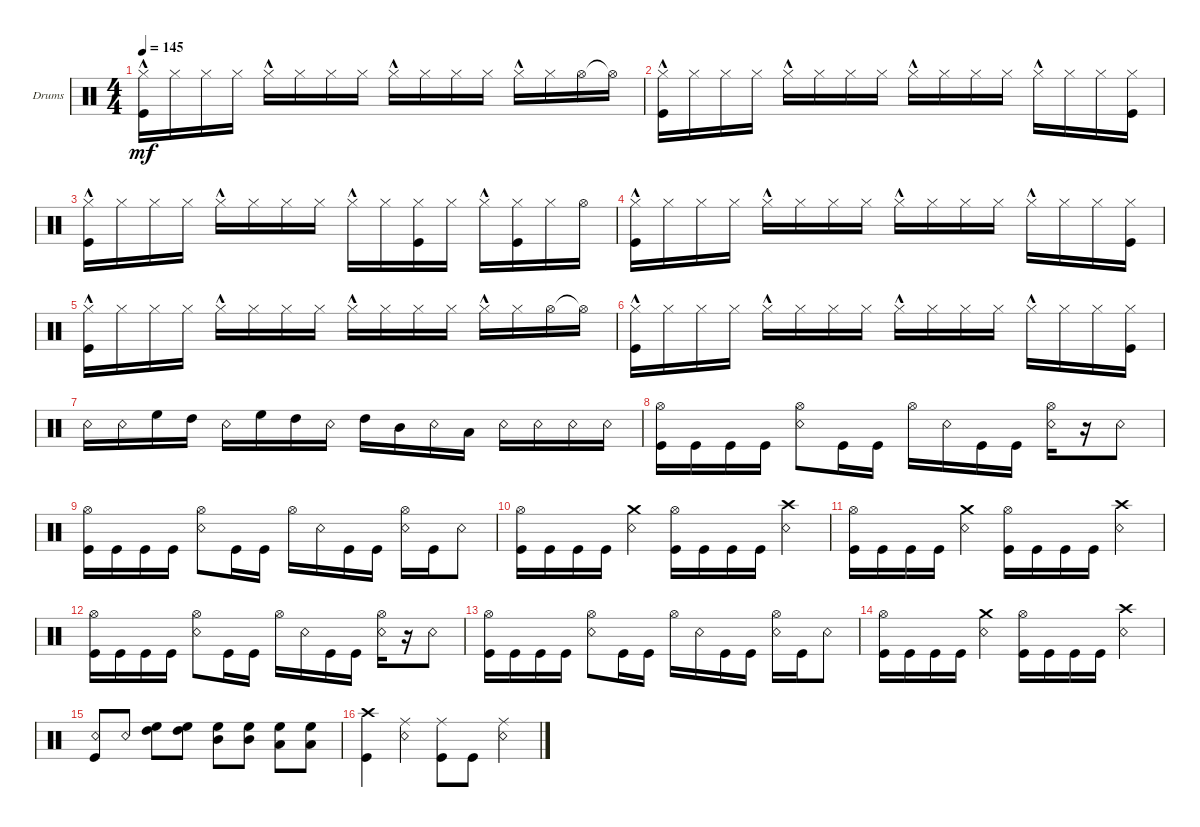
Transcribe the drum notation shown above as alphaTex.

\defaultSystemsLayout 4
\bracketExtendMode groupsimilarinstruments
\firstSystemTrackNameOrientation horizontal
\otherSystemsTrackNameOrientation horizontal
\track ("Drumkit" "Drums") {instrument percussion}
\staff {score}
\articulation defaults
\ts (4 4)
\tempo 145
\clef neutral
\ks c
("Hi-Hat (closed)"{hac} "Kick (hit)").16{dy mf} "Hi-Hat (closed)".16 "Hi-Hat (closed)".16 "Hi-Hat (closed)".16 "Hi-Hat (closed)"{hac}.16 "Hi-Hat (closed)".16 "Hi-Hat (closed)".16 "Hi-Hat (closed)".16 "Hi-Hat (closed)"{hac}.16 "Hi-Hat (closed)".16 "Hi-Hat (closed)".16 "Hi-Hat (closed)".16 "Hi-Hat (closed)"{hac}.16 "Hi-Hat (closed)".16 "Hi-Hat (open)".16 "Hi-Hat (open)"{t}.16 |
("Hi-Hat (closed)"{hac} "Kick (hit)").16 "Hi-Hat (closed)".16 "Hi-Hat (closed)".16 "Hi-Hat (closed)".16 "Hi-Hat (closed)"{hac}.16 "Hi-Hat (closed)".16 "Hi-Hat (closed)".16 "Hi-Hat (closed)".16 "Hi-Hat (closed)"{hac}.16 "Hi-Hat (closed)".16 "Hi-Hat (closed)".16 "Hi-Hat (closed)".16 "Hi-Hat (closed)"{hac}.16 "Hi-Hat (closed)".16 "Hi-Hat (closed)".16 ("Hi-Hat (closed)" "Kick (hit)").16 |
("Hi-Hat (closed)"{hac} "Kick (hit)").16 "Hi-Hat (closed)".16 "Hi-Hat (closed)".16 "Hi-Hat (closed)".16 "Hi-Hat (closed)"{hac}.16 "Hi-Hat (closed)".16 "Hi-Hat (closed)".16 "Hi-Hat (closed)".16 "Hi-Hat (closed)"{hac}.16 "Hi-Hat (closed)".16 ("Hi-Hat (closed)" "Kick (hit)").16 "Hi-Hat (closed)".16 "Hi-Hat (closed)"{hac}.16 ("Hi-Hat (closed)" "Kick (hit)").16 "Hi-Hat (closed)".16 "Hi-Hat (open)".16 |
("Hi-Hat (closed)"{hac} "Kick (hit)").16 "Hi-Hat (closed)".16 "Hi-Hat (closed)".16 "Hi-Hat (closed)".16 "Hi-Hat (closed)"{hac}.16 "Hi-Hat (closed)".16 "Hi-Hat (closed)".16 "Hi-Hat (closed)".16 "Hi-Hat (closed)"{hac}.16 "Hi-Hat (closed)".16 "Hi-Hat (closed)".16 "Hi-Hat (closed)".16 "Hi-Hat (closed)"{hac}.16 "Hi-Hat (closed)".16 "Hi-Hat (closed)".16 ("Hi-Hat (closed)" "Kick (hit)").16 |
("Hi-Hat (closed)"{hac} "Kick (hit)").16 "Hi-Hat (closed)".16 "Hi-Hat (closed)".16 "Hi-Hat (closed)".16 "Hi-Hat (closed)"{hac}.16 "Hi-Hat (closed)".16 "Hi-Hat (closed)".16 "Hi-Hat (closed)".16 "Hi-Hat (closed)"{hac}.16 "Hi-Hat (closed)".16 "Hi-Hat (closed)".16 "Hi-Hat (closed)".16 "Hi-Hat (closed)"{hac}.16 "Hi-Hat (closed)".16 "Hi-Hat (open)".16 "Hi-Hat (open)"{t}.16 |
("Hi-Hat (closed)"{hac} "Kick (hit)").16 "Hi-Hat (closed)".16 "Hi-Hat (closed)".16 "Hi-Hat (closed)".16 "Hi-Hat (closed)"{hac}.16 "Hi-Hat (closed)".16 "Hi-Hat (closed)".16 "Hi-Hat (closed)".16 "Hi-Hat (closed)"{hac}.16 "Hi-Hat (closed)".16 "Hi-Hat (closed)".16 "Hi-Hat (closed)".16 "Hi-Hat (closed)"{hac}.16 "Hi-Hat (closed)".16 "Hi-Hat (closed)".16 ("Hi-Hat (closed)" "Kick (hit)").16 |
"Snare (rim shot)".16 "Snare (rim shot)".16 "High Floor Tom (hit)".16 "High Tom (hit)".16 "Snare (rim shot)".16 "High Floor Tom (hit)".16 "High Tom (hit)".16 "Snare (rim shot)".16 "High Tom (hit)".16 "Mid Tom (hit)".16 "Snare (rim shot)".16 "Low Tom (hit)".16 "Snare (rim shot)".16 "Snare (rim shot)".16 "Snare (rim shot)".16 "Snare (rim shot)".16 |
("Kick (hit)" "Hi-Hat (open)").16 "Kick (hit)".16 "Kick (hit)".16 "Kick (hit)".16 ("Hi-Hat (open)" "Snare (rim shot)").8 "Kick (hit)".16 "Kick (hit)".16 "Hi-Hat (open)".16 "Snare (rim shot)".16 "Kick (hit)".16 "Kick (hit)".16 ("Snare (rim shot)" "Hi-Hat (open)").16 r.16 "Snare (rim shot)".8 |
("Kick (hit)" "Hi-Hat (open)").16 "Kick (hit)".16 "Kick (hit)".16 "Kick (hit)".16 ("Hi-Hat (open)" "Snare (rim shot)").8 "Kick (hit)".16 "Kick (hit)".16 "Hi-Hat (open)".16 "Snare (rim shot)".16 "Kick (hit)".16 "Kick (hit)".16 ("Snare (rim shot)" "Hi-Hat (open)").16 "Kick (hit)".16 "Snare (rim shot)".8 |
("Kick (hit)" "Hi-Hat (open)").16 "Kick (hit)".16 "Kick (hit)".16 "Kick (hit)".16 ("Snare (rim shot)" "Crash medium (hit)").4 ("Kick (hit)" "Hi-Hat (open)").16 "Kick (hit)".16 "Kick (hit)".16 "Kick (hit)".16 ("Snare (rim shot)" "Crash high (hit)").4 |
("Kick (hit)" "Hi-Hat (open)").16 "Kick (hit)".16 "Kick (hit)".16 "Kick (hit)".16 ("Snare (rim shot)" "Crash medium (hit)").4 ("Kick (hit)" "Hi-Hat (open)").16 "Kick (hit)".16 "Kick (hit)".16 "Kick (hit)".16 ("Snare (rim shot)" "Crash high (hit)").4 |
("Kick (hit)" "Hi-Hat (open)").16 "Kick (hit)".16 "Kick (hit)".16 "Kick (hit)".16 ("Hi-Hat (open)" "Snare (rim shot)").8 "Kick (hit)".16 "Kick (hit)".16 "Hi-Hat (open)".16 "Snare (rim shot)".16 "Kick (hit)".16 "Kick (hit)".16 ("Snare (rim shot)" "Hi-Hat (open)").16 r.16 "Snare (rim shot)".8 |
("Kick (hit)" "Hi-Hat (open)").16 "Kick (hit)".16 "Kick (hit)".16 "Kick (hit)".16 ("Hi-Hat (open)" "Snare (rim shot)").8 "Kick (hit)".16 "Kick (hit)".16 "Hi-Hat (open)".16 "Snare (rim shot)".16 "Kick (hit)".16 "Kick (hit)".16 ("Snare (rim shot)" "Hi-Hat (open)").16 "Kick (hit)".16 "Snare (rim shot)".8 |
("Kick (hit)" "Hi-Hat (open)").16 "Kick (hit)".16 "Kick (hit)".16 "Kick (hit)".16 ("Snare (rim shot)" "Crash medium (hit)").4 ("Kick (hit)" "Hi-Hat (open)").16 "Kick (hit)".16 "Kick (hit)".16 "Kick (hit)".16 ("Snare (rim shot)" "Crash high (hit)").4 |
("Kick (hit)" "Snare (rim shot)").8 "Snare (rim shot)".8 ("High Floor Tom (hit)" "High Tom (hit)").8 ("High Floor Tom (hit)" "High Tom (hit)").8 ("High Floor Tom (hit)" "Mid Tom (hit)").8 ("High Floor Tom (hit)" "Mid Tom (hit)").8 ("High Floor Tom (hit)" "Low Tom (hit)").8 ("High Floor Tom (hit)" "Low Tom (hit)").8 |
("Kick (hit)" "Crash high (hit)").4 ("Ride (middle)" "Snare (rim shot)").4 ("Kick (hit)" "Ride (middle)").8 "Kick (hit)".8 ("Ride (middle)" "Snare (rim shot)").4
